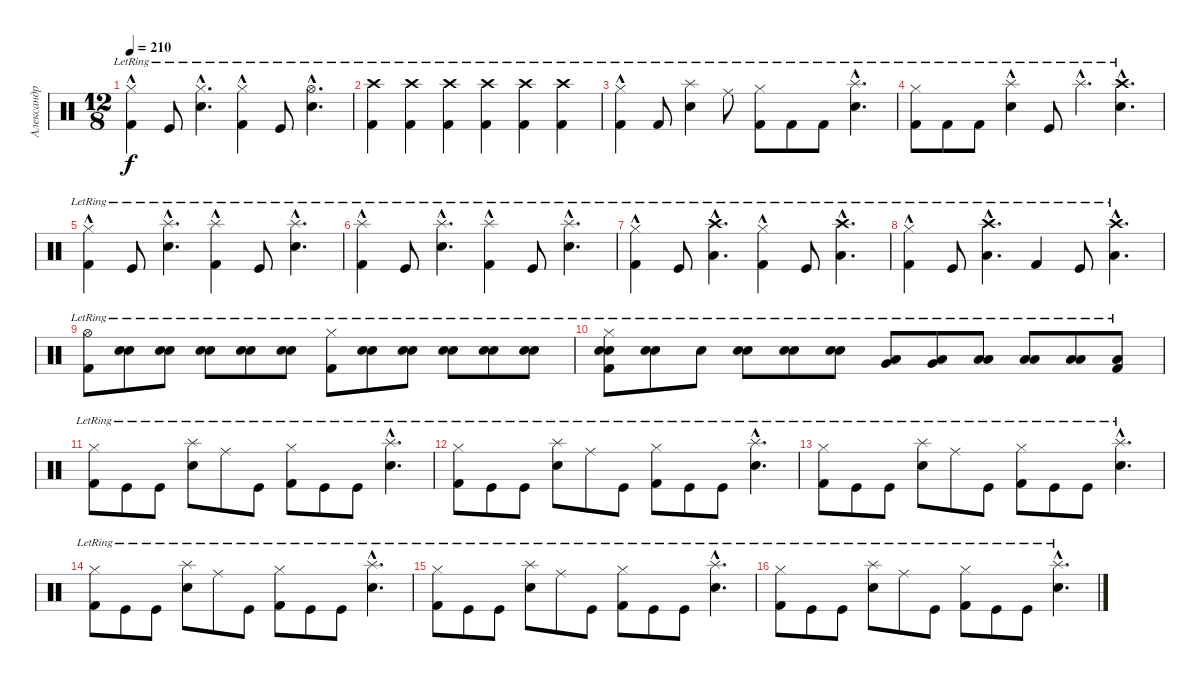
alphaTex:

\track ("Александр Манякин" "Александр ") {instrument percussion}
\staff {score}
\articulation defaults
\ts (12 8)
\tempo 210
\clef neutral
\ks c
("Hi-Hat (closed)"{hac lr} "Kick (hit) 2"{lr}).4{dy f} "Kick (hit)"{lr}.8 ("Hi-Hat (closed)"{hac lr} "Snare (hit) 2"{hac lr}).4{d} ("Hi-Hat (closed)"{hac lr} "Kick (hit) 2"{lr}).4 "Kick (hit)"{lr}.8 ("Hi-Hat (open)"{hac lr} "Snare (hit) 2"{hac lr}).4{d} |
("Crash high (hit)"{lr} "Kick (hit) 2"{lr}).4 ("Crash high (hit)"{lr} "Kick (hit) 2"{lr}).4 ("Crash high (hit)"{lr} "Kick (hit) 2"{lr}).4 ("Crash high (hit)"{lr} "Kick (hit) 2"{lr}).4 ("Crash high (hit)"{lr} "Kick (hit) 2"{lr}).4 ("Crash high (hit)"{lr} "Kick (hit) 2"{lr}).4 |
("Hi-Hat (closed)"{hac lr} "Kick (hit) 2"{lr}).4 "Kick (hit) 2"{lr}.8 ("Splash (hit)"{lr} "Snare (hit) 2"{lr}).4 "Ride (middle)"{lr}.8 ("Hi-Hat (closed)"{lr} "Kick (hit) 2"{lr}).8 "Kick (hit) 2"{lr}.8 "Kick (hit) 2"{lr}.8 ("Splash (hit)"{hac lr} "Electric Snare (hit)"{hac lr}).4{d} |
("Hi-Hat (closed)"{lr} "Kick (hit) 2"{lr}).8 "Kick (hit) 2"{lr}.8 "Kick (hit) 2"{lr}.8 ("Splash (hit)"{hac lr} "Snare (hit) 2"{lr}).4 "Kick (hit)"{lr}.8 "Splash (hit)"{hac lr}.4{d} ("Crash high (hit)"{hac lr} "Snare (hit) 2"{hac lr}).4{d} |
("Hi-Hat (closed)"{hac lr} "Kick (hit) 2"{lr}).4 "Kick (hit)"{lr}.8 ("Snare (hit) 2"{hac lr} "Splash (hit)"{hac lr}).4{d} ("Kick (hit) 2"{lr} "Splash (hit)"{hac lr}).4 "Kick (hit)"{lr}.8 ("Snare (hit) 2"{hac lr} "Splash (hit)"{hac lr}).4{d} |
("Kick (hit) 2"{lr} "Splash (hit)"{hac lr}).4 "Kick (hit)"{lr}.8 ("Snare (hit) 2"{hac lr} "Splash (hit)"{hac lr}).4{d} ("Kick (hit) 2"{lr} "Splash (hit)"{hac lr}).4 "Kick (hit)"{lr}.8 ("Snare (hit) 2"{hac lr} "Splash (hit)"{hac lr}).4{d} |
("Kick (hit) 2"{lr} "Hi-Hat (closed)"{hac lr}).4 "Kick (hit)"{lr}.8 ("Crash high (hit)"{hac lr} "Low Tom (hit)"{hac lr}).4{d} ("Hi-Hat (closed)"{hac lr} "Kick (hit) 2"{lr}).4 "Kick (hit)"{lr}.8 ("Crash high (hit)"{hac lr} "Low Tom (hit)"{hac lr}).4{d} |
("Hi-Hat (closed)"{hac lr} "Kick (hit) 2"{lr}).4 "Kick (hit)"{lr}.8 ("Crash high (hit)"{hac lr} "Low Tom (hit)"{hac lr}).4{d} "Kick (hit) 2"{lr}.4 "Kick (hit)"{lr}.8 ("Crash high (hit)"{hac lr} "Low Tom (hit)"{hac lr}).4{d} |
("Hi-Hat (open)"{lr} "Kick (hit) 2"{lr}).8 ("Electric Snare (hit)"{lr} "Electric Snare (hit)"{lr}).8 ("Electric Snare (hit)"{lr} "Electric Snare (hit)"{lr}).8 ("Electric Snare (hit)"{lr} "Electric Snare (hit)"{lr}).8 ("Electric Snare (hit)"{lr} "Electric Snare (hit)"{lr}).8 ("Electric Snare (hit)"{lr} "Electric Snare (hit)"{lr}).8 ("Hi-Hat (closed)"{lr} "Kick (hit) 2"{lr}).8 ("Electric Snare (hit)"{lr} "Snare (hit) 2"{lr}).8 ("Electric Snare (hit)"{lr} "Snare (hit) 2"{lr}).8 ("Electric Snare (hit)"{lr} "Snare (hit) 2"{lr}).8 ("Electric Snare (hit)"{lr} "Snare (hit) 2"{lr}).8 ("Electric Snare (hit)"{lr} "Snare (hit) 2"{lr}).8 |
("Electric Snare (hit)"{lr} "Hi-Hat (closed)"{lr} "Snare (hit) 2"{lr} "Kick (hit) 2"{lr}).8 ("Electric Snare (hit)"{lr} "Snare (hit) 2"{lr}).8 "Snare (hit) 2"{lr}.8 ("Electric Snare (hit)"{lr} "Snare (hit) 2"{lr}).8 ("Electric Snare (hit)"{lr} "Snare (hit) 2"{lr}).8 ("Electric Snare (hit)"{lr} "Snare (hit) 2"{lr}).8 ("Very Low Tom (hit)"{lr} "Low Tom (hit)"{lr}).8 ("Very Low Tom (hit)"{lr} "Low Tom (hit)"{lr}).8 ("Low Floor Tom (hit)"{lr} "Low Tom (hit)"{lr}).8 ("Low Tom (hit)"{lr} "Low Floor Tom (hit)"{lr}).8 ("Low Tom (hit)"{lr} "Low Floor Tom (hit)"{lr}).8 ("Low Tom (hit)"{lr} "Kick (hit) 2"{lr}).8 |
("Hi-Hat (closed)"{lr} "Kick (hit) 2"{lr}).8 "Kick (hit)"{lr}.8 "Kick (hit)"{lr}.8 ("Splash (hit)"{lr} "Snare (hit) 2"{lr}).8 "Ride (middle)"{lr}.8 "Kick (hit)"{lr}.8 ("Hi-Hat (closed)"{lr} "Kick (hit) 2"{lr}).8 "Kick (hit)"{lr}.8 "Kick (hit)"{lr}.8 ("Splash (hit)"{hac lr} "Snare (hit) 2"{hac lr}).4{d} |
("Hi-Hat (closed)"{lr} "Kick (hit) 2"{lr}).8 "Kick (hit)"{lr}.8 "Kick (hit)"{lr}.8 ("Splash (hit)"{lr} "Snare (hit) 2"{lr}).8 "Ride (middle)"{lr}.8 "Kick (hit)"{lr}.8 ("Hi-Hat (closed)"{lr} "Kick (hit) 2"{lr}).8 "Kick (hit)"{lr}.8 "Kick (hit)"{lr}.8 ("Splash (hit)"{hac lr} "Snare (hit) 2"{hac lr}).4{d} |
("Hi-Hat (closed)"{lr} "Kick (hit) 2"{lr}).8 "Kick (hit)"{lr}.8 "Kick (hit)"{lr}.8 ("Splash (hit)"{lr} "Snare (hit) 2"{lr}).8 "Ride (middle)"{lr}.8 "Kick (hit)"{lr}.8 ("Hi-Hat (closed)"{lr} "Kick (hit) 2"{lr}).8 "Kick (hit)"{lr}.8 "Kick (hit)"{lr}.8 ("Splash (hit)"{hac lr} "Snare (hit) 2"{hac lr}).4{d} |
("Hi-Hat (closed)"{lr} "Kick (hit) 2"{lr}).8 "Kick (hit)"{lr}.8 "Kick (hit)"{lr}.8 ("Splash (hit)"{lr} "Snare (hit) 2"{lr}).8 "Ride (middle)"{lr}.8 "Kick (hit)"{lr}.8 ("Hi-Hat (closed)"{lr} "Kick (hit) 2"{lr}).8 "Kick (hit)"{lr}.8 "Kick (hit)"{lr}.8 ("Splash (hit)"{hac lr} "Snare (hit) 2"{hac lr}).4{d} |
("Hi-Hat (closed)"{lr} "Kick (hit) 2"{lr}).8 "Kick (hit)"{lr}.8 "Kick (hit)"{lr}.8 ("Splash (hit)"{lr} "Snare (hit) 2"{lr}).8 "Ride (middle)"{lr}.8 "Kick (hit)"{lr}.8 ("Hi-Hat (closed)"{lr} "Kick (hit) 2"{lr}).8 "Kick (hit)"{lr}.8 "Kick (hit)"{lr}.8 ("Splash (hit)"{hac lr} "Snare (hit) 2"{hac lr}).4{d} |
("Hi-Hat (closed)"{lr} "Kick (hit) 2"{lr}).8 "Kick (hit)"{lr}.8 "Kick (hit)"{lr}.8 ("Splash (hit)"{lr} "Snare (hit) 2"{lr}).8 "Ride (middle)"{lr}.8 "Kick (hit)"{lr}.8 ("Hi-Hat (closed)"{lr} "Kick (hit) 2"{lr}).8 "Kick (hit)"{lr}.8 "Kick (hit)"{lr}.8 ("Splash (hit)"{hac lr} "Snare (hit) 2"{hac lr}).4{d}
